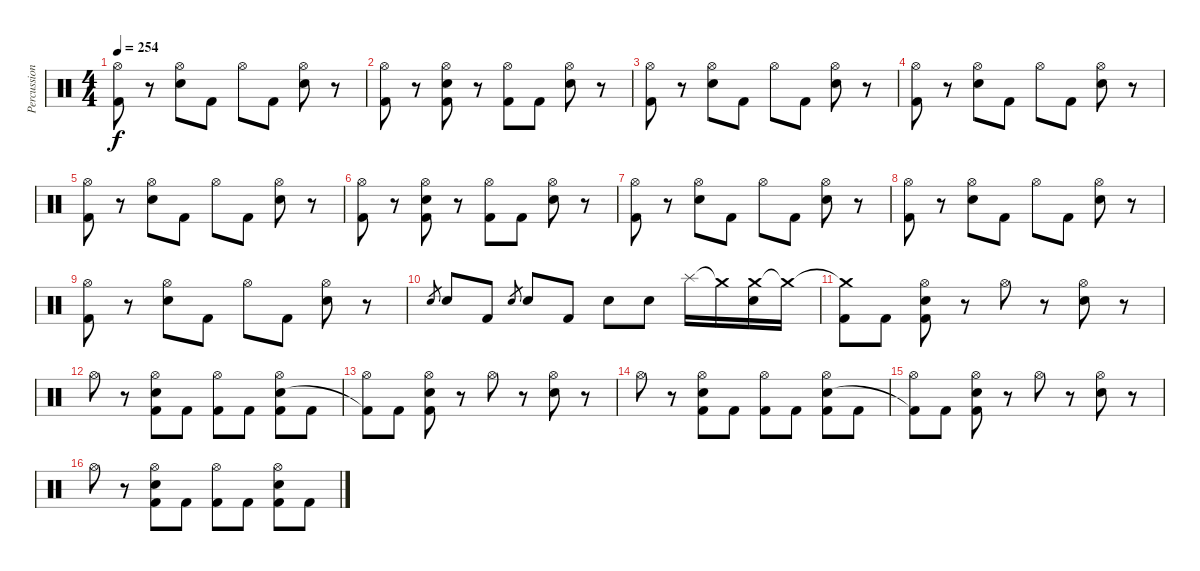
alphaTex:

\track ("Percussion" "Percussion") {instrument percussion}
\staff {score}
\articulation defaults
\ts (4 4)
\tempo 254
\clef neutral
\ks c
("Hi-Hat (open)" "Kick (hit) 2").8{dy f} r.8 ("Hi-Hat (open)" "Electric Snare (hit)").8 "Kick (hit) 2".8 "Hi-Hat (open)".8 "Kick (hit) 2".8 ("Hi-Hat (open)" "Electric Snare (hit)").8 r.8 |
("Hi-Hat (open)" "Kick (hit) 2").8 r.8 ("Hi-Hat (open)" "Electric Snare (hit)" "Kick (hit) 2").8 r.8 ("Hi-Hat (open)" "Kick (hit) 2").8 "Kick (hit) 2".8 ("Hi-Hat (open)" "Electric Snare (hit)").8 r.8 |
("Hi-Hat (open)" "Kick (hit) 2").8 r.8 ("Hi-Hat (open)" "Electric Snare (hit)").8 "Kick (hit) 2".8 "Hi-Hat (open)".8 "Kick (hit) 2".8 ("Hi-Hat (open)" "Electric Snare (hit)").8 r.8 |
("Hi-Hat (open)" "Kick (hit) 2").8 r.8 ("Hi-Hat (open)" "Electric Snare (hit)").8 "Kick (hit) 2".8 "Hi-Hat (open)".8 "Kick (hit) 2".8 ("Hi-Hat (open)" "Electric Snare (hit)").8 r.8 |
("Hi-Hat (open)" "Kick (hit) 2").8 r.8 ("Hi-Hat (open)" "Electric Snare (hit)").8 "Kick (hit) 2".8 "Hi-Hat (open)".8 "Kick (hit) 2".8 ("Hi-Hat (open)" "Electric Snare (hit)").8 r.8 |
("Hi-Hat (open)" "Kick (hit) 2").8 r.8 ("Hi-Hat (open)" "Electric Snare (hit)" "Kick (hit) 2").8 r.8 ("Hi-Hat (open)" "Kick (hit) 2").8 "Kick (hit) 2".8 ("Hi-Hat (open)" "Electric Snare (hit)").8 r.8 |
("Hi-Hat (open)" "Kick (hit) 2").8 r.8 ("Hi-Hat (open)" "Electric Snare (hit)").8 "Kick (hit) 2".8 "Hi-Hat (open)".8 "Kick (hit) 2".8 ("Hi-Hat (open)" "Electric Snare (hit)").8 r.8 |
("Hi-Hat (open)" "Kick (hit) 2").8 r.8 ("Hi-Hat (open)" "Electric Snare (hit)").8 "Kick (hit) 2".8 "Hi-Hat (open)".8 "Kick (hit) 2".8 ("Hi-Hat (open)" "Electric Snare (hit)").8 r.8 |
("Hi-Hat (open)" "Kick (hit) 2").8 r.8 ("Hi-Hat (open)" "Electric Snare (hit)").8 "Kick (hit) 2".8 "Hi-Hat (open)".8 "Kick (hit) 2".8 ("Hi-Hat (open)" "Electric Snare (hit)").8 r.8 |
"Electric Snare (hit)".8{gr} "Electric Snare (hit)".8 "Kick (hit) 2".8 "Electric Snare (hit)".8{gr} "Electric Snare (hit)".8 "Kick (hit) 2".8 "Electric Snare (hit)".8 "Electric Snare (hit)".8 "Splash (hit)".16 "Crash medium (hit)"{t}.16 ("Crash medium (hit)" "Electric Snare (hit)").16 "Crash medium (hit)"{t}.16 |
("Crash medium (hit)"{t} "Kick (hit) 2").8 "Kick (hit) 2".8 ("Hi-Hat (open)" "Electric Snare (hit)" "Kick (hit) 2").8 r.8 "Hi-Hat (open)".8 r.8 ("Hi-Hat (open)" "Electric Snare (hit)").8 r.8 |
"Hi-Hat (open)".8 r.8 ("Hi-Hat (open)" "Electric Snare (hit)" "Kick (hit) 2").8 "Kick (hit) 2".8 ("Hi-Hat (open)" "Kick (hit) 2").8 "Kick (hit) 2".8 ("Hi-Hat (open)" "Electric Snare (hit)" "Kick (hit) 2").8 "Kick (hit) 2".8 |
("Hi-Hat (open)" "Kick (hit) 2"{t}).8 "Kick (hit) 2".8 ("Hi-Hat (open)" "Electric Snare (hit)" "Kick (hit) 2").8 r.8 "Hi-Hat (open)".8 r.8 ("Hi-Hat (open)" "Electric Snare (hit)").8 r.8 |
"Hi-Hat (open)".8 r.8 ("Hi-Hat (open)" "Electric Snare (hit)" "Kick (hit) 2").8 "Kick (hit) 2".8 ("Hi-Hat (open)" "Kick (hit) 2").8 "Kick (hit) 2".8 ("Hi-Hat (open)" "Electric Snare (hit)" "Kick (hit) 2").8 "Kick (hit) 2".8 |
("Hi-Hat (open)" "Kick (hit) 2"{t}).8 "Kick (hit) 2".8 ("Hi-Hat (open)" "Electric Snare (hit)" "Kick (hit) 2").8 r.8 "Hi-Hat (open)".8 r.8 ("Hi-Hat (open)" "Electric Snare (hit)").8 r.8 |
"Hi-Hat (open)".8 r.8 ("Hi-Hat (open)" "Electric Snare (hit)" "Kick (hit) 2").8 "Kick (hit) 2".8 ("Hi-Hat (open)" "Kick (hit) 2").8 "Kick (hit) 2".8 ("Hi-Hat (open)" "Electric Snare (hit)" "Kick (hit) 2").8 "Kick (hit) 2".8
